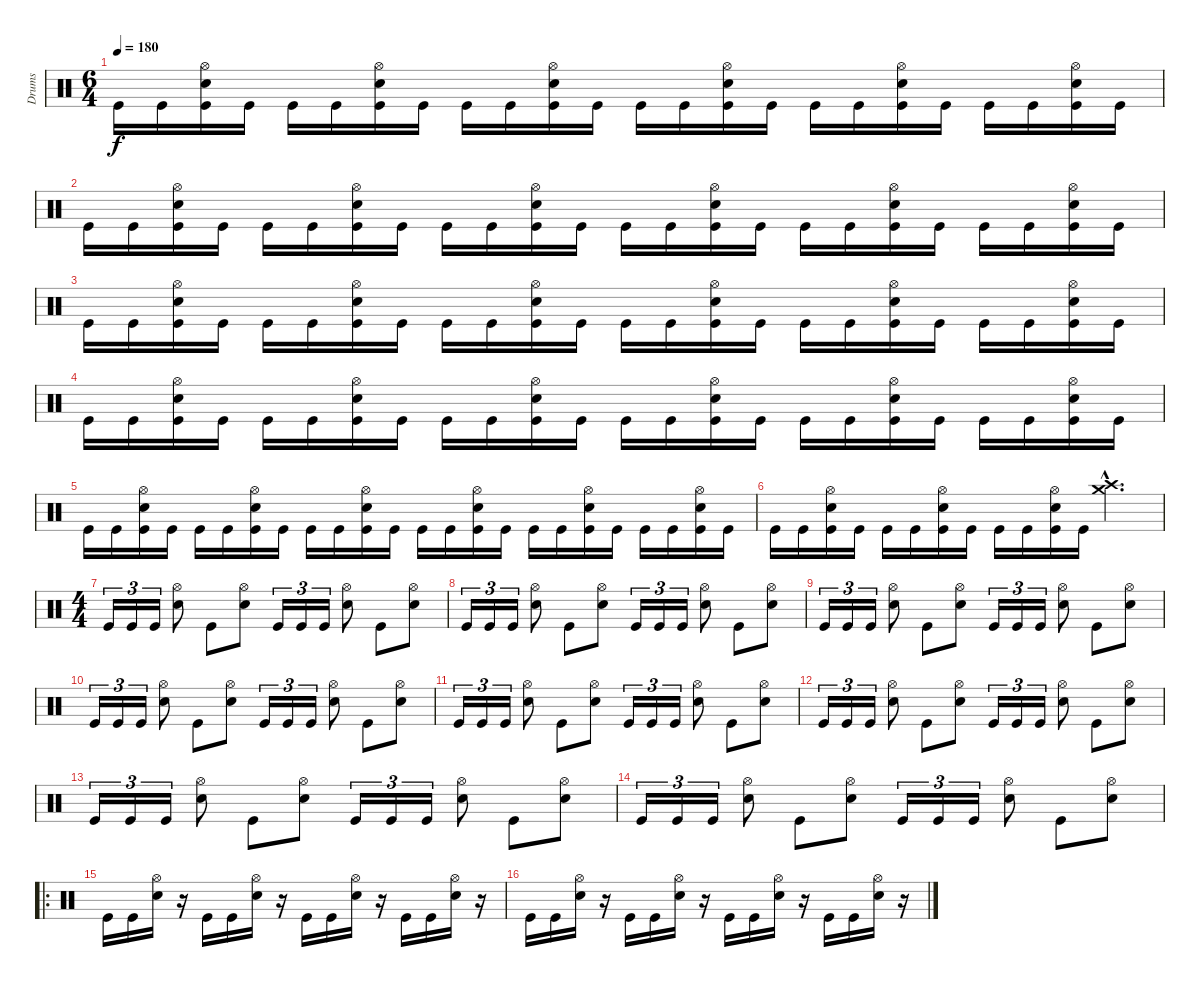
\track ("Drums" "Drums") {instrument percussion}
\staff {score}
\articulation defaults
\ts (6 4)
\tempo 180
\clef neutral
\ks c "Kick (hit)".16{dy f} "Kick (hit)".16
("Kick (hit)" "Electric Snare (hit)" "Hi-Hat (open)").16 "Kick (hit)".16 "Kick (hit)".16 "Kick (hit)".16 ("Kick (hit)" "Electric Snare (hit)" "Hi-Hat (open)").16 "Kick (hit)".16 "Kick (hit)".16 "Kick (hit)".16 ("Kick (hit)" "Electric Snare (hit)" "Hi-Hat (open)").16 "Kick (hit)".16 "Kick (hit)".16 "Kick (hit)".16 ("Kick (hit)" "Electric Snare (hit)" "Hi-Hat (open)").16 "Kick (hit)".16 "Kick (hit)".16 "Kick (hit)".16 ("Kick (hit)" "Electric Snare (hit)" "Hi-Hat (open)").16 "Kick (hit)".16 "Kick (hit)".16 "Kick (hit)".16 ("Kick (hit)" "Electric Snare (hit)" "Hi-Hat (open)").16 "Kick (hit)".16 |
"Kick (hit)".16 "Kick (hit)".16 ("Kick (hit)" "Electric Snare (hit)" "Hi-Hat (open)").16 "Kick (hit)".16 "Kick (hit)".16 "Kick (hit)".16 ("Kick (hit)" "Electric Snare (hit)" "Hi-Hat (open)").16 "Kick (hit)".16 "Kick (hit)".16 "Kick (hit)".16 ("Kick (hit)" "Electric Snare (hit)" "Hi-Hat (open)").16 "Kick (hit)".16 "Kick (hit)".16 "Kick (hit)".16 ("Kick (hit)" "Electric Snare (hit)" "Hi-Hat (open)").16 "Kick (hit)".16 "Kick (hit)".16 "Kick (hit)".16 ("Kick (hit)" "Electric Snare (hit)" "Hi-Hat (open)").16 "Kick (hit)".16 "Kick (hit)".16 "Kick (hit)".16 ("Kick (hit)" "Electric Snare (hit)" "Hi-Hat (open)").16 "Kick (hit)".16 |
"Kick (hit)".16 "Kick (hit)".16 ("Kick (hit)" "Electric Snare (hit)" "Hi-Hat (open)").16 "Kick (hit)".16 "Kick (hit)".16 "Kick (hit)".16 ("Kick (hit)" "Electric Snare (hit)" "Hi-Hat (open)").16 "Kick (hit)".16 "Kick (hit)".16 "Kick (hit)".16 ("Kick (hit)" "Electric Snare (hit)" "Hi-Hat (open)").16 "Kick (hit)".16 "Kick (hit)".16 "Kick (hit)".16 ("Kick (hit)" "Electric Snare (hit)" "Hi-Hat (open)").16 "Kick (hit)".16 "Kick (hit)".16 "Kick (hit)".16 ("Kick (hit)" "Electric Snare (hit)" "Hi-Hat (open)").16 "Kick (hit)".16 "Kick (hit)".16 "Kick (hit)".16 ("Kick (hit)" "Electric Snare (hit)" "Hi-Hat (open)").16 "Kick (hit)".16 |
"Kick (hit)".16 "Kick (hit)".16 ("Kick (hit)" "Electric Snare (hit)" "Hi-Hat (open)").16 "Kick (hit)".16 "Kick (hit)".16 "Kick (hit)".16 ("Kick (hit)" "Electric Snare (hit)" "Hi-Hat (open)").16 "Kick (hit)".16 "Kick (hit)".16 "Kick (hit)".16 ("Kick (hit)" "Electric Snare (hit)" "Hi-Hat (open)").16 "Kick (hit)".16 "Kick (hit)".16 "Kick (hit)".16 ("Kick (hit)" "Electric Snare (hit)" "Hi-Hat (open)").16 "Kick (hit)".16 "Kick (hit)".16 "Kick (hit)".16 ("Kick (hit)" "Electric Snare (hit)" "Hi-Hat (open)").16 "Kick (hit)".16 "Kick (hit)".16 "Kick (hit)".16 ("Kick (hit)" "Electric Snare (hit)" "Hi-Hat (open)").16 "Kick (hit)".16 |
"Kick (hit)".16 "Kick (hit)".16 ("Kick (hit)" "Electric Snare (hit)" "Hi-Hat (open)").16 "Kick (hit)".16 "Kick (hit)".16 "Kick (hit)".16 ("Kick (hit)" "Electric Snare (hit)" "Hi-Hat (open)").16 "Kick (hit)".16 "Kick (hit)".16 "Kick (hit)".16 ("Kick (hit)" "Electric Snare (hit)" "Hi-Hat (open)").16 "Kick (hit)".16 "Kick (hit)".16 "Kick (hit)".16 ("Kick (hit)" "Electric Snare (hit)" "Hi-Hat (open)").16 "Kick (hit)".16 "Kick (hit)".16 "Kick (hit)".16 ("Kick (hit)" "Electric Snare (hit)" "Hi-Hat (open)").16 "Kick (hit)".16 "Kick (hit)".16 "Kick (hit)".16 ("Kick (hit)" "Electric Snare (hit)" "Hi-Hat (open)").16 "Kick (hit)".16 |
"Kick (hit)".16 "Kick (hit)".16 ("Kick (hit)" "Electric Snare (hit)" "Hi-Hat (open)").16 "Kick (hit)".16 "Kick (hit)".16 "Kick (hit)".16 ("Kick (hit)" "Electric Snare (hit)" "Hi-Hat (open)").16 "Kick (hit)".16 "Kick (hit)".16 "Kick (hit)".16 ("Kick (hit)" "Electric Snare (hit)" "Hi-Hat (open)").16 "Kick (hit)".16 ("Crash medium (hit)"{hac} "Crash high (hit)"{hac}).2{d} |
\ts (4 4)
"Kick (hit)".16{tu (3 2)} "Kick (hit)".16{tu (3 2)} "Kick (hit)".16{tu (3 2)} ("Electric Snare (hit)" "Hi-Hat (open)").8 "Kick (hit)".8 ("Electric Snare (hit)" "Hi-Hat (open)").8 "Kick (hit)".16{tu (3 2)} "Kick (hit)".16{tu (3 2)} "Kick (hit)".16{tu (3 2)} ("Electric Snare (hit)" "Hi-Hat (open)").8 "Kick (hit)".8 ("Electric Snare (hit)" "Hi-Hat (open)").8 |
"Kick (hit)".16{tu (3 2)} "Kick (hit)".16{tu (3 2)} "Kick (hit)".16{tu (3 2)} ("Electric Snare (hit)" "Hi-Hat (open)").8 "Kick (hit)".8 ("Electric Snare (hit)" "Hi-Hat (open)").8 "Kick (hit)".16{tu (3 2)} "Kick (hit)".16{tu (3 2)} "Kick (hit)".16{tu (3 2)} ("Electric Snare (hit)" "Hi-Hat (open)").8 "Kick (hit)".8 ("Electric Snare (hit)" "Hi-Hat (open)").8 |
"Kick (hit)".16{tu (3 2)} "Kick (hit)".16{tu (3 2)} "Kick (hit)".16{tu (3 2)} ("Electric Snare (hit)" "Hi-Hat (open)").8 "Kick (hit)".8 ("Electric Snare (hit)" "Hi-Hat (open)").8 "Kick (hit)".16{tu (3 2)} "Kick (hit)".16{tu (3 2)} "Kick (hit)".16{tu (3 2)} ("Electric Snare (hit)" "Hi-Hat (open)").8 "Kick (hit)".8 ("Electric Snare (hit)" "Hi-Hat (open)").8 |
"Kick (hit)".16{tu (3 2)} "Kick (hit)".16{tu (3 2)} "Kick (hit)".16{tu (3 2)} ("Electric Snare (hit)" "Hi-Hat (open)").8 "Kick (hit)".8 ("Electric Snare (hit)" "Hi-Hat (open)").8 "Kick (hit)".16{tu (3 2)} "Kick (hit)".16{tu (3 2)} "Kick (hit)".16{tu (3 2)} ("Electric Snare (hit)" "Hi-Hat (open)").8 "Kick (hit)".8 ("Electric Snare (hit)" "Hi-Hat (open)").8 |
"Kick (hit)".16{tu (3 2)} "Kick (hit)".16{tu (3 2)} "Kick (hit)".16{tu (3 2)} ("Electric Snare (hit)" "Hi-Hat (open)").8 "Kick (hit)".8 ("Electric Snare (hit)" "Hi-Hat (open)").8 "Kick (hit)".16{tu (3 2)} "Kick (hit)".16{tu (3 2)} "Kick (hit)".16{tu (3 2)} ("Electric Snare (hit)" "Hi-Hat (open)").8 "Kick (hit)".8 ("Electric Snare (hit)" "Hi-Hat (open)").8 |
"Kick (hit)".16{tu (3 2)} "Kick (hit)".16{tu (3 2)} "Kick (hit)".16{tu (3 2)} ("Electric Snare (hit)" "Hi-Hat (open)").8 "Kick (hit)".8 ("Electric Snare (hit)" "Hi-Hat (open)").8 "Kick (hit)".16{tu (3 2)} "Kick (hit)".16{tu (3 2)} "Kick (hit)".16{tu (3 2)} ("Electric Snare (hit)" "Hi-Hat (open)").8 "Kick (hit)".8 ("Electric Snare (hit)" "Hi-Hat (open)").8 |
"Kick (hit)".16{tu (3 2)} "Kick (hit)".16{tu (3 2)} "Kick (hit)".16{tu (3 2)} ("Electric Snare (hit)" "Hi-Hat (open)").8 "Kick (hit)".8 ("Electric Snare (hit)" "Hi-Hat (open)").8 "Kick (hit)".16{tu (3 2)} "Kick (hit)".16{tu (3 2)} "Kick (hit)".16{tu (3 2)} ("Electric Snare (hit)" "Hi-Hat (open)").8 "Kick (hit)".8 ("Electric Snare (hit)" "Hi-Hat (open)").8 |
"Kick (hit)".16{tu (3 2)} "Kick (hit)".16{tu (3 2)} "Kick (hit)".16{tu (3 2)} ("Electric Snare (hit)" "Hi-Hat (open)").8 "Kick (hit)".8 ("Electric Snare (hit)" "Hi-Hat (open)").8 "Kick (hit)".16{tu (3 2)} "Kick (hit)".16{tu (3 2)} "Kick (hit)".16{tu (3 2)} ("Electric Snare (hit)" "Hi-Hat (open)").8 "Kick (hit)".8 ("Electric Snare (hit)" "Hi-Hat (open)").8 |
\ro "Kick (hit)".16 "Kick (hit)".16
("Electric Snare (hit)" "Hi-Hat (open)").16 r.16 "Kick (hit)".16 "Kick (hit)".16 ("Electric Snare (hit)" "Hi-Hat (open)").16 r.16 "Kick (hit)".16 "Kick (hit)".16 ("Electric Snare (hit)" "Hi-Hat (open)").16 r.16 "Kick (hit)".16 "Kick (hit)".16 ("Electric Snare (hit)" "Hi-Hat (open)").16 r.16 |
"Kick (hit)".16 "Kick (hit)".16 ("Electric Snare (hit)" "Hi-Hat (open)").16 r.16 "Kick (hit)".16 "Kick (hit)".16 ("Electric Snare (hit)" "Hi-Hat (open)").16 r.16 "Kick (hit)".16 "Kick (hit)".16 ("Electric Snare (hit)" "Hi-Hat (open)").16 r.16 "Kick (hit)".16 "Kick (hit)".16 ("Electric Snare (hit)" "Hi-Hat (open)").16 r.16
